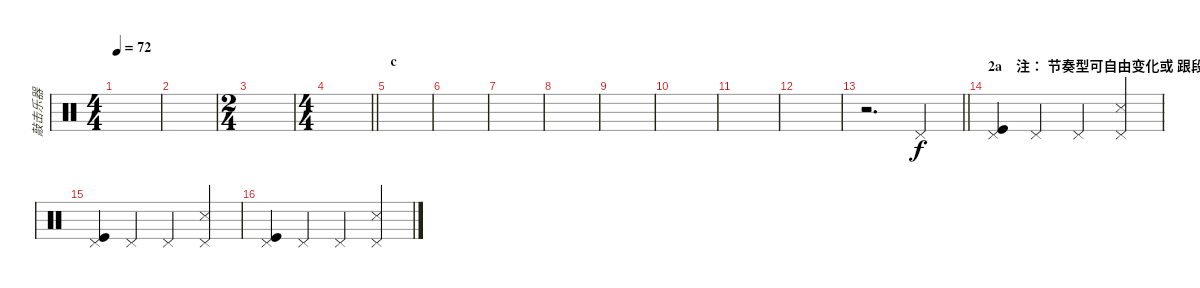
\track ("敲击乐器" "敲击乐器") {instrument percussion}
\staff {score}
\articulation defaults
\ts (4 4)
\tempo 72
\clef neutral
\ks c
|
|
\ts (2 4)
|
\ts (4 4)
\barLineRight lightlight
|
\section ("" "c")
|
|
|
|
|
|
|
|
\barLineRight lightlight
r.2{d} "Pedal Hi-Hat (hit)".4 |
\section ("" "2a    注： 节奏型可自由变化或 跟段落1相同")
("Pedal Hi-Hat (hit)" "Kick (hit)").4 "Pedal Hi-Hat (hit)".4 "Pedal Hi-Hat (hit)".4 ("Pedal Hi-Hat (hit)" "Snare (side stick) 3").4 |
("Pedal Hi-Hat (hit)" "Kick (hit)").4 "Pedal Hi-Hat (hit)".4 "Pedal Hi-Hat (hit)".4 ("Pedal Hi-Hat (hit)" "Snare (side stick) 3").4 |
("Pedal Hi-Hat (hit)" "Kick (hit)").4 "Pedal Hi-Hat (hit)".4 "Pedal Hi-Hat (hit)".4 ("Pedal Hi-Hat (hit)" "Snare (side stick) 3").4
